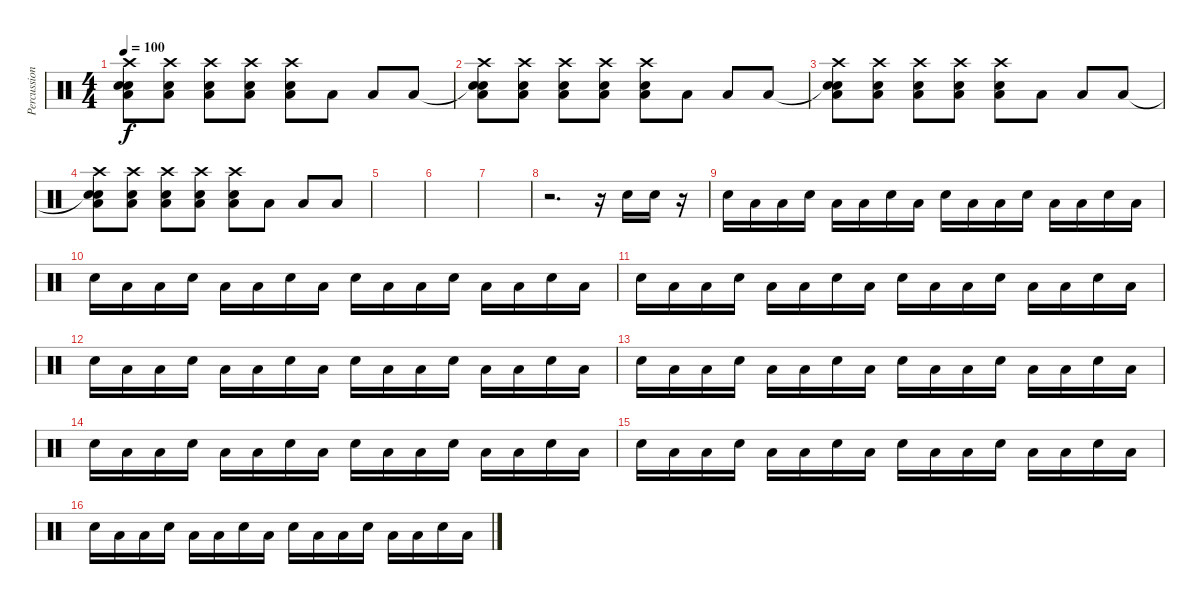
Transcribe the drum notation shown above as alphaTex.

\track ("Percussion" "Percussion") {instrument percussion}
\staff {score}
\articulation defaults
\ts (4 4)
\tempo 100
\clef neutral
\ks c
("Snare (hit)"{t} "Low Floor Tom (hit)" "Crash high (hit)" "Electric Snare (hit)").8{dy f} ("Low Floor Tom (hit)" "Crash high (hit)" "Electric Snare (hit)").8 ("Low Floor Tom (hit)" "Crash high (hit)" "Electric Snare (hit)").8 ("Low Floor Tom (hit)" "Crash high (hit)" "Electric Snare (hit)").8 ("Low Floor Tom (hit)" "Crash high (hit)" "Electric Snare (hit)").8 "Low Floor Tom (hit)".8 "Low Floor Tom (hit)".8 "Low Floor Tom (hit)".8 |
("Snare (hit)"{t} "Low Floor Tom (hit)" "Crash high (hit)" "Electric Snare (hit)").8 ("Low Floor Tom (hit)" "Crash high (hit)" "Electric Snare (hit)").8 ("Low Floor Tom (hit)" "Crash high (hit)" "Electric Snare (hit)").8 ("Low Floor Tom (hit)" "Crash high (hit)" "Electric Snare (hit)").8 ("Low Floor Tom (hit)" "Crash high (hit)" "Electric Snare (hit)").8 "Low Floor Tom (hit)".8 "Low Floor Tom (hit)".8 "Low Floor Tom (hit)".8 |
("Snare (hit)"{t} "Low Floor Tom (hit)" "Crash high (hit)" "Electric Snare (hit)").8 ("Low Floor Tom (hit)" "Crash high (hit)" "Electric Snare (hit)").8 ("Low Floor Tom (hit)" "Crash high (hit)" "Electric Snare (hit)").8 ("Low Floor Tom (hit)" "Crash high (hit)" "Electric Snare (hit)").8 ("Low Floor Tom (hit)" "Crash high (hit)" "Electric Snare (hit)").8 "Low Floor Tom (hit)".8 "Low Floor Tom (hit)".8 "Low Floor Tom (hit)".8 |
("Snare (hit)"{t} "Low Floor Tom (hit)" "Crash high (hit)" "Electric Snare (hit)").8 ("Low Floor Tom (hit)" "Crash high (hit)" "Electric Snare (hit)").8 ("Low Floor Tom (hit)" "Crash high (hit)" "Electric Snare (hit)").8 ("Low Floor Tom (hit)" "Crash high (hit)" "Electric Snare (hit)").8 ("Low Floor Tom (hit)" "Crash high (hit)" "Electric Snare (hit)").8 "Low Floor Tom (hit)".8 "Low Floor Tom (hit)".8 "Low Floor Tom (hit)".8 |
|
|
|
r.2{d} r.16 "Electric Snare (hit)".16 "Electric Snare (hit)".16 r.16 |
"Electric Snare (hit)".16 "Low Floor Tom (hit)".16 "Low Floor Tom (hit)".16 "Electric Snare (hit)".16 "Low Floor Tom (hit)".16 "Low Floor Tom (hit)".16 "Electric Snare (hit)".16 "Low Floor Tom (hit)".16 "Electric Snare (hit)".16 "Low Floor Tom (hit)".16 "Low Floor Tom (hit)".16 "Electric Snare (hit)".16 "Low Floor Tom (hit)".16 "Low Floor Tom (hit)".16 "Electric Snare (hit)".16 "Low Floor Tom (hit)".16 |
"Electric Snare (hit)".16 "Low Floor Tom (hit)".16 "Low Floor Tom (hit)".16 "Electric Snare (hit)".16 "Low Floor Tom (hit)".16 "Low Floor Tom (hit)".16 "Electric Snare (hit)".16 "Low Floor Tom (hit)".16 "Electric Snare (hit)".16 "Low Floor Tom (hit)".16 "Low Floor Tom (hit)".16 "Electric Snare (hit)".16 "Low Floor Tom (hit)".16 "Low Floor Tom (hit)".16 "Electric Snare (hit)".16 "Low Floor Tom (hit)".16 |
"Electric Snare (hit)".16 "Low Floor Tom (hit)".16 "Low Floor Tom (hit)".16 "Electric Snare (hit)".16 "Low Floor Tom (hit)".16 "Low Floor Tom (hit)".16 "Electric Snare (hit)".16 "Low Floor Tom (hit)".16 "Electric Snare (hit)".16 "Low Floor Tom (hit)".16 "Low Floor Tom (hit)".16 "Electric Snare (hit)".16 "Low Floor Tom (hit)".16 "Low Floor Tom (hit)".16 "Electric Snare (hit)".16 "Low Floor Tom (hit)".16 |
"Electric Snare (hit)".16 "Low Floor Tom (hit)".16 "Low Floor Tom (hit)".16 "Electric Snare (hit)".16 "Low Floor Tom (hit)".16 "Low Floor Tom (hit)".16 "Electric Snare (hit)".16 "Low Floor Tom (hit)".16 "Electric Snare (hit)".16 "Low Floor Tom (hit)".16 "Low Floor Tom (hit)".16 "Electric Snare (hit)".16 "Low Floor Tom (hit)".16 "Low Floor Tom (hit)".16 "Electric Snare (hit)".16 "Low Floor Tom (hit)".16 |
"Electric Snare (hit)".16 "Low Floor Tom (hit)".16 "Low Floor Tom (hit)".16 "Electric Snare (hit)".16 "Low Floor Tom (hit)".16 "Low Floor Tom (hit)".16 "Electric Snare (hit)".16 "Low Floor Tom (hit)".16 "Electric Snare (hit)".16 "Low Floor Tom (hit)".16 "Low Floor Tom (hit)".16 "Electric Snare (hit)".16 "Low Floor Tom (hit)".16 "Low Floor Tom (hit)".16 "Electric Snare (hit)".16 "Low Floor Tom (hit)".16 |
"Electric Snare (hit)".16 "Low Floor Tom (hit)".16 "Low Floor Tom (hit)".16 "Electric Snare (hit)".16 "Low Floor Tom (hit)".16 "Low Floor Tom (hit)".16 "Electric Snare (hit)".16 "Low Floor Tom (hit)".16 "Electric Snare (hit)".16 "Low Floor Tom (hit)".16 "Low Floor Tom (hit)".16 "Electric Snare (hit)".16 "Low Floor Tom (hit)".16 "Low Floor Tom (hit)".16 "Electric Snare (hit)".16 "Low Floor Tom (hit)".16 |
"Electric Snare (hit)".16 "Low Floor Tom (hit)".16 "Low Floor Tom (hit)".16 "Electric Snare (hit)".16 "Low Floor Tom (hit)".16 "Low Floor Tom (hit)".16 "Electric Snare (hit)".16 "Low Floor Tom (hit)".16 "Electric Snare (hit)".16 "Low Floor Tom (hit)".16 "Low Floor Tom (hit)".16 "Electric Snare (hit)".16 "Low Floor Tom (hit)".16 "Low Floor Tom (hit)".16 "Electric Snare (hit)".16 "Low Floor Tom (hit)".16 |
"Electric Snare (hit)".16 "Low Floor Tom (hit)".16 "Low Floor Tom (hit)".16 "Electric Snare (hit)".16 "Low Floor Tom (hit)".16 "Low Floor Tom (hit)".16 "Electric Snare (hit)".16 "Low Floor Tom (hit)".16 "Electric Snare (hit)".16 "Low Floor Tom (hit)".16 "Low Floor Tom (hit)".16 "Electric Snare (hit)".16 "Low Floor Tom (hit)".16 "Low Floor Tom (hit)".16 "Electric Snare (hit)".16 "Low Floor Tom (hit)".16
